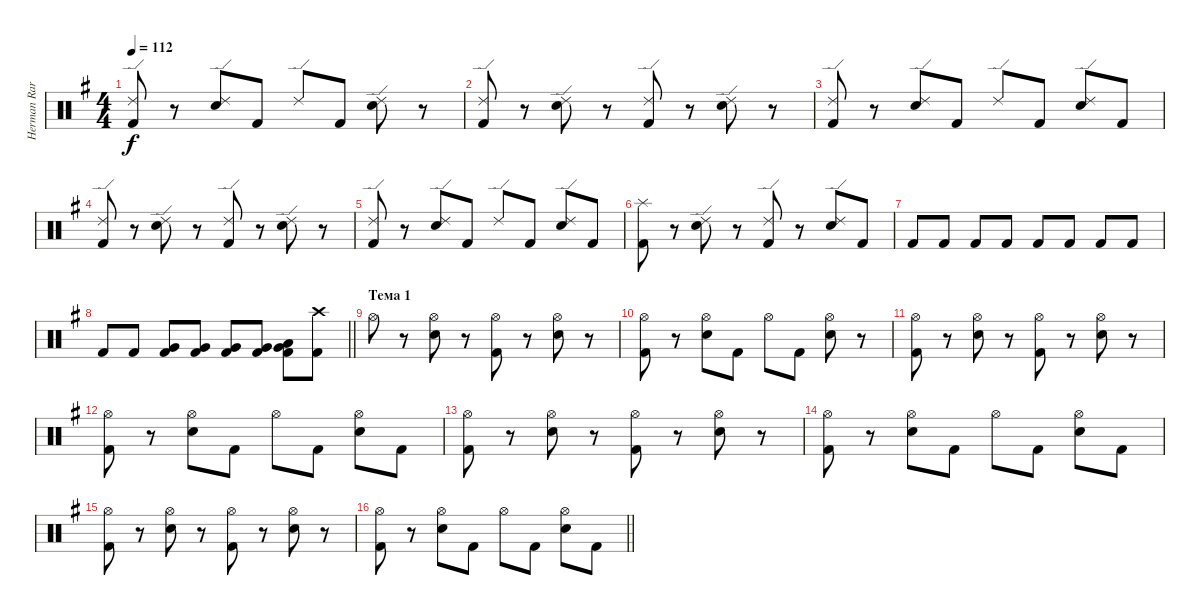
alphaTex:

\track ("Herman Rarebell" "Herman Rar") {instrument percussion}
\staff {score}
\articulation defaults
\ts (4 4)
\tempo 112
\clef neutral
\ks eminor
("Ride (edge) 2" "Kick (hit) 2").8{dy f} r.8 ("Ride (edge) 2" "Electric Snare (hit)").8 "Kick (hit) 2".8 "Ride (edge) 2".8 "Kick (hit) 2".8 ("Ride (edge) 2" "Electric Snare (hit)").8 r.8 |
("Ride (edge) 2" "Kick (hit) 2").8 r.8 ("Ride (edge) 2" "Electric Snare (hit)").8 r.8 ("Ride (edge) 2" "Kick (hit) 2").8 r.8 ("Ride (edge) 2" "Electric Snare (hit)").8 r.8 |
("Ride (edge) 2" "Kick (hit) 2").8 r.8 ("Ride (edge) 2" "Electric Snare (hit)").8 "Kick (hit) 2".8 "Ride (edge) 2".8 "Kick (hit) 2".8 ("Ride (edge) 2" "Electric Snare (hit)").8 "Kick (hit) 2".8 |
("Ride (edge) 2" "Kick (hit) 2").8 r.8 ("Ride (edge) 2" "Electric Snare (hit)").8 r.8 ("Ride (edge) 2" "Kick (hit) 2").8 r.8 ("Ride (edge) 2" "Electric Snare (hit)").8 r.8 |
("Ride (edge) 2" "Kick (hit) 2").8 r.8 ("Ride (edge) 2" "Electric Snare (hit)").8 "Kick (hit) 2".8 "Ride (edge) 2".8 "Kick (hit) 2".8 ("Ride (edge) 2" "Electric Snare (hit)").8 "Kick (hit) 2".8 |
("Splash (hit)" "Kick (hit) 2").8 r.8 ("Ride (edge) 2" "Electric Snare (hit)").8 r.8 ("Ride (edge) 2" "Kick (hit) 2").8 r.8 ("Ride (edge) 2" "Electric Snare (hit)").8 "Kick (hit) 2".8 |
"Kick (hit) 2".8 "Kick (hit) 2".8 "Kick (hit) 2".8 "Kick (hit) 2".8 "Kick (hit) 2".8 "Kick (hit) 2".8 "Kick (hit) 2".8 "Kick (hit) 2".8 |
\barLineRight lightlight "Kick (hit) 2".8 "Kick (hit) 2".8
("Very Low Tom (hit)" "Kick (hit) 2").8 ("Very Low Tom (hit)" "Kick (hit) 2").8 ("Very Low Tom (hit)" "Kick (hit) 2").8 ("Very Low Tom (hit)" "Kick (hit) 2").8 ("Very Low Tom (hit)" "Low Floor Tom (hit)" "Kick (hit) 2").8 ("Crash high (hit)" "Kick (hit) 2").8 |
\section ("" "Тема 1")
"Hi-Hat (open)".8 r.8 ("Hi-Hat (open)" "Electric Snare (hit)").8 r.8 ("Hi-Hat (open)" "Kick (hit) 2").8 r.8 ("Hi-Hat (open)" "Electric Snare (hit)").8 r.8 |
("Hi-Hat (open)" "Kick (hit) 2").8 r.8 ("Hi-Hat (open)" "Electric Snare (hit)").8 "Kick (hit) 2".8 "Hi-Hat (open)".8 "Kick (hit) 2".8 ("Hi-Hat (open)" "Electric Snare (hit)").8 r.8 |
("Hi-Hat (open)" "Kick (hit) 2").8 r.8 ("Hi-Hat (open)" "Electric Snare (hit)").8 r.8 ("Hi-Hat (open)" "Kick (hit) 2").8 r.8 ("Hi-Hat (open)" "Electric Snare (hit)").8 r.8 |
("Hi-Hat (open)" "Kick (hit) 2").8 r.8 ("Hi-Hat (open)" "Electric Snare (hit)").8 "Kick (hit) 2".8 "Hi-Hat (open)".8 "Kick (hit) 2".8 ("Hi-Hat (open)" "Electric Snare (hit)").8 "Kick (hit) 2".8 |
("Hi-Hat (open)" "Kick (hit) 2").8 r.8 ("Hi-Hat (open)" "Electric Snare (hit)").8 r.8 ("Hi-Hat (open)" "Kick (hit) 2").8 r.8 ("Hi-Hat (open)" "Electric Snare (hit)").8 r.8 |
("Hi-Hat (open)" "Kick (hit) 2").8 r.8 ("Hi-Hat (open)" "Electric Snare (hit)").8 "Kick (hit) 2".8 "Hi-Hat (open)".8 "Kick (hit) 2".8 ("Hi-Hat (open)" "Electric Snare (hit)").8 "Kick (hit) 2".8 |
("Hi-Hat (open)" "Kick (hit) 2").8 r.8 ("Hi-Hat (open)" "Electric Snare (hit)").8 r.8 ("Hi-Hat (open)" "Kick (hit) 2").8 r.8 ("Hi-Hat (open)" "Electric Snare (hit)").8 r.8 |
\barLineRight lightlight
("Hi-Hat (open)" "Kick (hit) 2").8 r.8 ("Hi-Hat (open)" "Electric Snare (hit)").8 "Kick (hit) 2".8 "Hi-Hat (open)".8 "Kick (hit) 2".8 ("Hi-Hat (open)" "Electric Snare (hit)").8 "Kick (hit) 2".8
